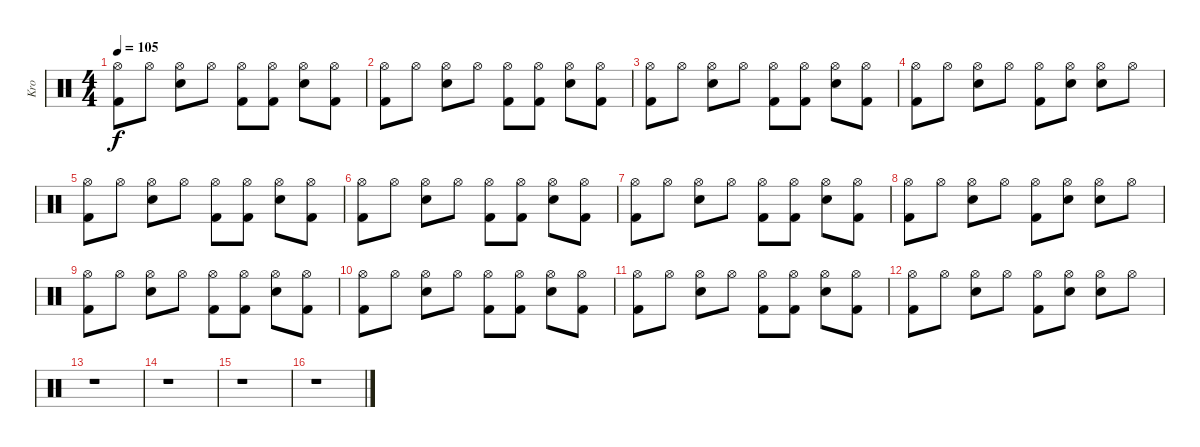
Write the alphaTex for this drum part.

\track ("Kro" "Kro") {instrument percussion}
\staff {score}
\articulation defaults
\ts (4 4)
\tempo 105
\clef neutral
\ks c
("Hi-Hat (open)" "Kick (hit) 2").8{dy f} "Hi-Hat (open)".8 ("Hi-Hat (open)" "Electric Snare (hit)").8 "Hi-Hat (open)".8 ("Hi-Hat (open)" "Kick (hit) 2").8 ("Hi-Hat (open)" "Kick (hit) 2").8 ("Hi-Hat (open)" "Electric Snare (hit)").8 ("Hi-Hat (open)" "Kick (hit) 2").8 |
("Hi-Hat (open)" "Kick (hit) 2").8 "Hi-Hat (open)".8 ("Hi-Hat (open)" "Electric Snare (hit)").8 "Hi-Hat (open)".8 ("Hi-Hat (open)" "Kick (hit) 2").8 ("Hi-Hat (open)" "Kick (hit) 2").8 ("Hi-Hat (open)" "Electric Snare (hit)").8 ("Hi-Hat (open)" "Kick (hit) 2").8 |
("Hi-Hat (open)" "Kick (hit) 2").8 "Hi-Hat (open)".8 ("Hi-Hat (open)" "Electric Snare (hit)").8 "Hi-Hat (open)".8 ("Hi-Hat (open)" "Kick (hit) 2").8 ("Hi-Hat (open)" "Kick (hit) 2").8 ("Hi-Hat (open)" "Electric Snare (hit)").8 ("Hi-Hat (open)" "Kick (hit) 2").8 |
("Hi-Hat (open)" "Kick (hit) 2").8 "Hi-Hat (open)".8 ("Hi-Hat (open)" "Electric Snare (hit)").8 "Hi-Hat (open)".8 ("Hi-Hat (open)" "Kick (hit) 2").8 ("Hi-Hat (open)" "Electric Snare (hit)").8 ("Hi-Hat (open)" "Electric Snare (hit)").8 "Hi-Hat (open)".8 |
("Hi-Hat (open)" "Kick (hit) 2").8 "Hi-Hat (open)".8 ("Hi-Hat (open)" "Electric Snare (hit)").8 "Hi-Hat (open)".8 ("Hi-Hat (open)" "Kick (hit) 2").8 ("Hi-Hat (open)" "Kick (hit) 2").8 ("Hi-Hat (open)" "Electric Snare (hit)").8 ("Hi-Hat (open)" "Kick (hit) 2").8 |
("Hi-Hat (open)" "Kick (hit) 2").8 "Hi-Hat (open)".8 ("Hi-Hat (open)" "Electric Snare (hit)").8 "Hi-Hat (open)".8 ("Hi-Hat (open)" "Kick (hit) 2").8 ("Hi-Hat (open)" "Kick (hit) 2").8 ("Hi-Hat (open)" "Electric Snare (hit)").8 ("Hi-Hat (open)" "Kick (hit) 2").8 |
("Hi-Hat (open)" "Kick (hit) 2").8 "Hi-Hat (open)".8 ("Hi-Hat (open)" "Electric Snare (hit)").8 "Hi-Hat (open)".8 ("Hi-Hat (open)" "Kick (hit) 2").8 ("Hi-Hat (open)" "Kick (hit) 2").8 ("Hi-Hat (open)" "Electric Snare (hit)").8 ("Hi-Hat (open)" "Kick (hit) 2").8 |
("Hi-Hat (open)" "Kick (hit) 2").8 "Hi-Hat (open)".8 ("Hi-Hat (open)" "Electric Snare (hit)").8 "Hi-Hat (open)".8 ("Hi-Hat (open)" "Kick (hit) 2").8 ("Hi-Hat (open)" "Electric Snare (hit)").8 ("Hi-Hat (open)" "Electric Snare (hit)").8 "Hi-Hat (open)".8 |
("Hi-Hat (open)" "Kick (hit) 2").8 "Hi-Hat (open)".8 ("Hi-Hat (open)" "Electric Snare (hit)").8 "Hi-Hat (open)".8 ("Hi-Hat (open)" "Kick (hit) 2").8 ("Hi-Hat (open)" "Kick (hit) 2").8 ("Hi-Hat (open)" "Electric Snare (hit)").8 ("Hi-Hat (open)" "Kick (hit) 2").8 |
("Hi-Hat (open)" "Kick (hit) 2").8 "Hi-Hat (open)".8 ("Hi-Hat (open)" "Electric Snare (hit)").8 "Hi-Hat (open)".8 ("Hi-Hat (open)" "Kick (hit) 2").8 ("Hi-Hat (open)" "Kick (hit) 2").8 ("Hi-Hat (open)" "Electric Snare (hit)").8 ("Hi-Hat (open)" "Kick (hit) 2").8 |
("Hi-Hat (open)" "Kick (hit) 2").8 "Hi-Hat (open)".8 ("Hi-Hat (open)" "Electric Snare (hit)").8 "Hi-Hat (open)".8 ("Hi-Hat (open)" "Kick (hit) 2").8 ("Hi-Hat (open)" "Kick (hit) 2").8 ("Hi-Hat (open)" "Electric Snare (hit)").8 ("Hi-Hat (open)" "Kick (hit) 2").8 |
("Hi-Hat (open)" "Kick (hit) 2").8 "Hi-Hat (open)".8 ("Hi-Hat (open)" "Electric Snare (hit)").8 "Hi-Hat (open)".8 ("Hi-Hat (open)" "Kick (hit) 2").8 ("Hi-Hat (open)" "Electric Snare (hit)").8 ("Hi-Hat (open)" "Electric Snare (hit)").8 "Hi-Hat (open)".8 |
r.1 |
r.1 |
r.1 |
r.1
